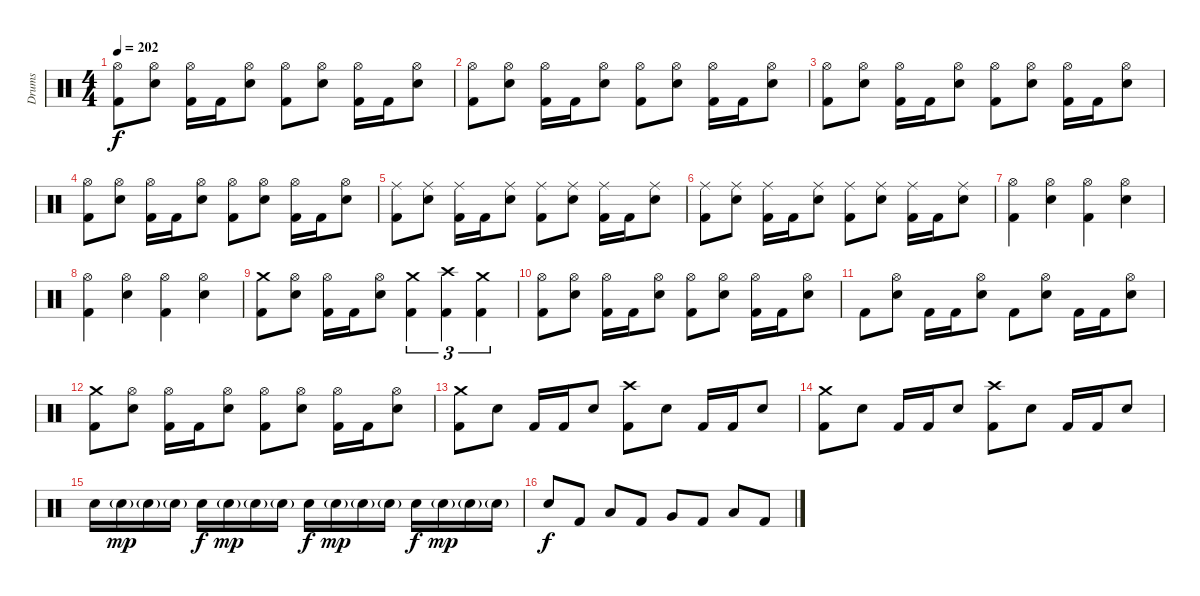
\track ("Drums" "Drums") {instrument percussion}
\staff {score}
\articulation defaults
\ts (4 4)
\tempo 202
\clef neutral
\ks c
("Hi-Hat (open)" "Kick (hit) 2").8{dy f} ("Hi-Hat (open)" "Electric Snare (hit)").8 ("Hi-Hat (open)" "Kick (hit) 2").16 "Kick (hit) 2".16 ("Hi-Hat (open)" "Electric Snare (hit)").8 ("Hi-Hat (open)" "Kick (hit) 2").8 ("Hi-Hat (open)" "Electric Snare (hit)").8 ("Hi-Hat (open)" "Kick (hit) 2").16 "Kick (hit) 2".16 ("Hi-Hat (open)" "Electric Snare (hit)").8 |
("Hi-Hat (open)" "Kick (hit) 2").8 ("Hi-Hat (open)" "Electric Snare (hit)").8 ("Hi-Hat (open)" "Kick (hit) 2").16 "Kick (hit) 2".16 ("Hi-Hat (open)" "Electric Snare (hit)").8 ("Hi-Hat (open)" "Kick (hit) 2").8 ("Hi-Hat (open)" "Electric Snare (hit)").8 ("Hi-Hat (open)" "Kick (hit) 2").16 "Kick (hit) 2".16 ("Hi-Hat (open)" "Electric Snare (hit)").8 |
("Hi-Hat (open)" "Kick (hit) 2").8 ("Hi-Hat (open)" "Electric Snare (hit)").8 ("Hi-Hat (open)" "Kick (hit) 2").16 "Kick (hit) 2".16 ("Hi-Hat (open)" "Electric Snare (hit)").8 ("Hi-Hat (open)" "Kick (hit) 2").8 ("Hi-Hat (open)" "Electric Snare (hit)").8 ("Hi-Hat (open)" "Kick (hit) 2").16 "Kick (hit) 2".16 ("Hi-Hat (open)" "Electric Snare (hit)").8 |
("Hi-Hat (open)" "Kick (hit) 2").8 ("Hi-Hat (open)" "Electric Snare (hit)").8 ("Hi-Hat (open)" "Kick (hit) 2").16 "Kick (hit) 2".16 ("Hi-Hat (open)" "Electric Snare (hit)").8 ("Hi-Hat (open)" "Kick (hit) 2").8 ("Hi-Hat (open)" "Electric Snare (hit)").8 ("Hi-Hat (open)" "Kick (hit) 2").16 "Kick (hit) 2".16 ("Hi-Hat (open)" "Electric Snare (hit)").8 |
("Ride (middle)" "Kick (hit) 2").8 ("Ride (middle)" "Electric Snare (hit)").8 ("Ride (middle)" "Kick (hit) 2").16 "Kick (hit) 2".16 ("Ride (middle)" "Electric Snare (hit)").8 ("Ride (middle)" "Kick (hit) 2").8 ("Ride (middle)" "Electric Snare (hit)").8 ("Ride (middle)" "Kick (hit) 2").16 "Kick (hit) 2".16 ("Ride (middle)" "Electric Snare (hit)").8 |
("Ride (middle)" "Kick (hit) 2").8 ("Ride (middle)" "Electric Snare (hit)").8 ("Ride (middle)" "Kick (hit) 2").16 "Kick (hit) 2".16 ("Ride (middle)" "Electric Snare (hit)").8 ("Ride (middle)" "Kick (hit) 2").8 ("Ride (middle)" "Electric Snare (hit)").8 ("Ride (middle)" "Kick (hit) 2").16 "Kick (hit) 2".16 ("Ride (middle)" "Electric Snare (hit)").8 |
("Hi-Hat (open)" "Kick (hit) 2").4 ("Hi-Hat (open)" "Electric Snare (hit)").4 ("Hi-Hat (open)" "Kick (hit) 2").4 ("Hi-Hat (open)" "Electric Snare (hit)").4 |
("Hi-Hat (open)" "Kick (hit) 2").4 ("Hi-Hat (open)" "Electric Snare (hit)").4 ("Hi-Hat (open)" "Kick (hit) 2").4 ("Hi-Hat (open)" "Electric Snare (hit)").4 |
("Crash medium (hit)" "Kick (hit) 2").8 ("Hi-Hat (open)" "Electric Snare (hit)").8 ("Hi-Hat (open)" "Kick (hit) 2").16 "Kick (hit) 2".16 ("Hi-Hat (open)" "Electric Snare (hit)").8 ("Crash medium (hit)" "Kick (hit) 2").4{tu (3 2)} ("Crash high (hit)" "Kick (hit) 2").4{tu (3 2)} ("Crash medium (hit)" "Kick (hit) 2").4{tu (3 2)} |
("Hi-Hat (open)" "Kick (hit) 2").8 ("Hi-Hat (open)" "Electric Snare (hit)").8 ("Hi-Hat (open)" "Kick (hit) 2").16 "Kick (hit) 2".16 ("Hi-Hat (open)" "Electric Snare (hit)").8 ("Hi-Hat (open)" "Kick (hit) 2").8 ("Hi-Hat (open)" "Electric Snare (hit)").8 ("Hi-Hat (open)" "Kick (hit) 2").16 "Kick (hit) 2".16 ("Hi-Hat (open)" "Electric Snare (hit)").8 |
"Kick (hit) 2".8 ("Hi-Hat (open)" "Electric Snare (hit)").8 "Kick (hit) 2".16 "Kick (hit) 2".16 ("Hi-Hat (open)" "Electric Snare (hit)").8 "Kick (hit) 2".8 ("Hi-Hat (open)" "Electric Snare (hit)").8 "Kick (hit) 2".16 "Kick (hit) 2".16 ("Hi-Hat (open)" "Electric Snare (hit)").8 |
("Crash medium (hit)" "Kick (hit) 2").8 ("Hi-Hat (open)" "Electric Snare (hit)").8 ("Hi-Hat (open)" "Kick (hit) 2").16 "Kick (hit) 2".16 ("Hi-Hat (open)" "Electric Snare (hit)").8 ("Hi-Hat (open)" "Kick (hit) 2").8 ("Hi-Hat (open)" "Electric Snare (hit)").8 ("Hi-Hat (open)" "Kick (hit) 2").16 "Kick (hit) 2".16 ("Hi-Hat (open)" "Electric Snare (hit)").8 |
("Crash medium (hit)" "Kick (hit) 2").8 "Electric Snare (hit)".8 "Kick (hit) 2".16 "Kick (hit) 2".16 "Electric Snare (hit)".8 ("Crash high (hit)" "Kick (hit) 2").8 "Electric Snare (hit)".8 "Kick (hit) 2".16 "Kick (hit) 2".16 "Electric Snare (hit)".8 |
("Crash medium (hit)" "Kick (hit) 2").8 "Electric Snare (hit)".8 "Kick (hit) 2".16 "Kick (hit) 2".16 "Electric Snare (hit)".8 ("Crash high (hit)" "Kick (hit) 2").8 "Electric Snare (hit)".8 "Kick (hit) 2".16 "Kick (hit) 2".16 "Electric Snare (hit)".8 |
"Electric Snare (hit)".16 "Snare (hit) 2"{g}.16{dy mp} "Snare (hit) 2"{g}.16 "Snare (hit) 2"{g}.16 "Electric Snare (hit)".16{dy f} "Snare (hit) 2"{g}.16{dy mp} "Snare (hit) 2"{g}.16 "Snare (hit) 2"{g}.16 "Electric Snare (hit)".16{dy f} "Snare (hit) 2"{g}.16{dy mp} "Snare (hit) 2"{g}.16 "Snare (hit) 2"{g}.16 "Electric Snare (hit)".16{dy f} "Snare (hit) 2"{g}.16{dy mp} "Snare (hit) 2"{g}.16 "Snare (hit) 2"{g}.16 |
"Electric Snare (hit)".8{dy f} "Kick (hit) 2".8 "Low Tom (hit)".8 "Kick (hit) 2".8 "Very Low Tom (hit)".8 "Kick (hit) 2".8 "Low Floor Tom (hit)".8 "Kick (hit) 2".8
